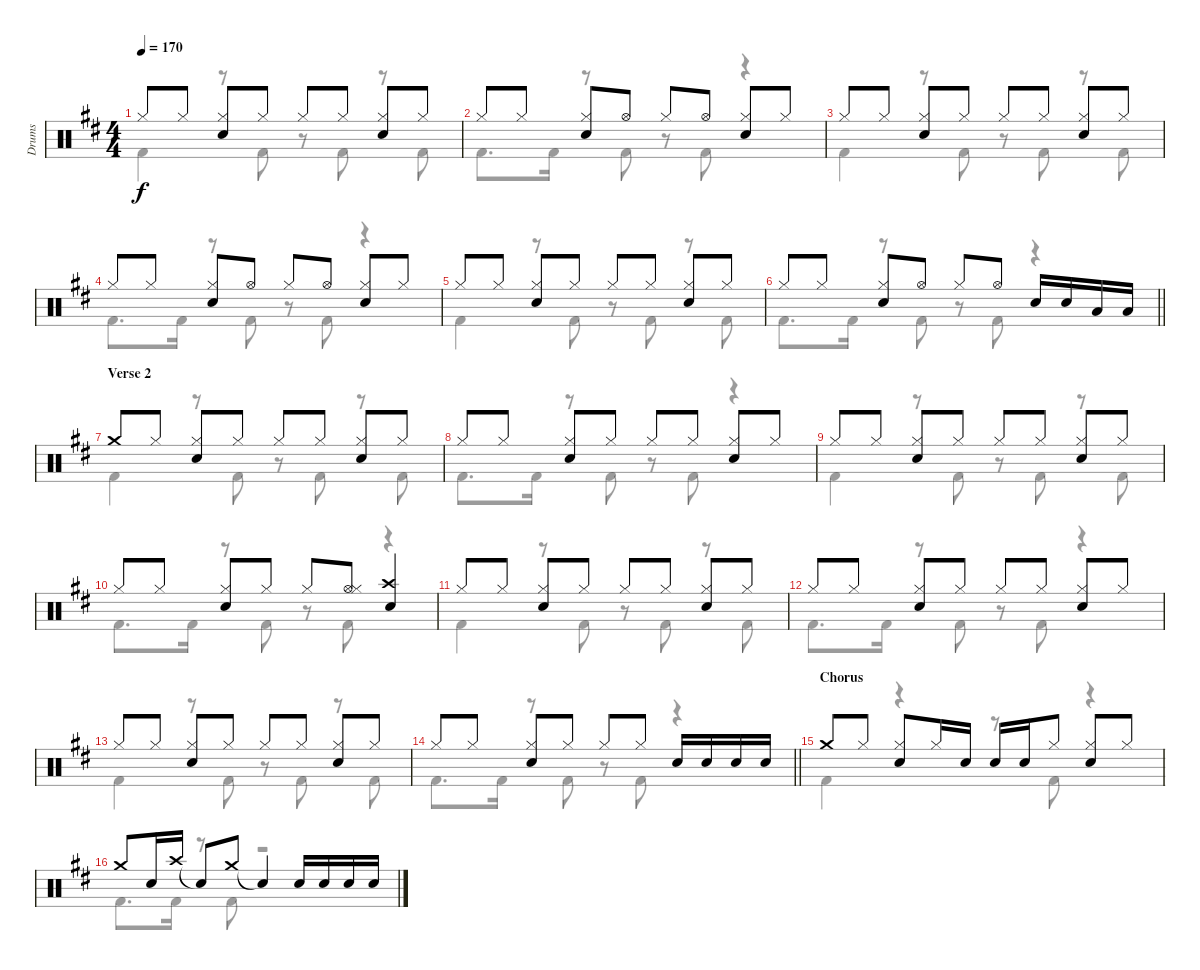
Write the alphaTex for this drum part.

\track ("Drums" "Drums") {instrument percussion}
\staff {score}
\articulation defaults
\voice
\ts (4 4)
\tempo 170
\clef neutral
\ks d "Hi-Hat (closed)".8{dy f} "Hi-Hat (closed)".8
("Hi-Hat (closed)" "Snare (hit) 2").8 "Hi-Hat (closed)".8 "Hi-Hat (closed)".8 "Hi-Hat (closed)".8 ("Hi-Hat (closed)" "Snare (hit) 2").8 "Hi-Hat (closed)".8 |
"Hi-Hat (closed)".8 "Hi-Hat (closed)".8 ("Hi-Hat (closed)" "Snare (hit) 2").8 "Hi-Hat (open)".8 "Hi-Hat (closed)".8 "Hi-Hat (open)".8 ("Hi-Hat (closed)" "Snare (hit) 2").8 "Hi-Hat (closed)".8 |
"Hi-Hat (closed)".8 "Hi-Hat (closed)".8 ("Hi-Hat (closed)" "Snare (hit) 2").8 "Hi-Hat (closed)".8 "Hi-Hat (closed)".8 "Hi-Hat (closed)".8 ("Hi-Hat (closed)" "Snare (hit) 2").8 "Hi-Hat (closed)".8 |
"Hi-Hat (closed)".8 "Hi-Hat (closed)".8 ("Hi-Hat (closed)" "Snare (hit) 2").8 "Hi-Hat (open)".8 "Hi-Hat (closed)".8 "Hi-Hat (open)".8 ("Hi-Hat (closed)" "Snare (hit) 2").8 "Hi-Hat (closed)".8 |
"Hi-Hat (closed)".8 "Hi-Hat (closed)".8 ("Hi-Hat (closed)" "Snare (hit) 2").8 "Hi-Hat (closed)".8 "Hi-Hat (closed)".8 "Hi-Hat (closed)".8 ("Hi-Hat (closed)" "Snare (hit) 2").8 "Hi-Hat (closed)".8 |
\barLineRight lightlight "Hi-Hat (closed)".8 "Hi-Hat (closed)".8
("Hi-Hat (closed)" "Snare (hit) 2").8 "Hi-Hat (open)".8 "Hi-Hat (closed)".8 "Hi-Hat (open)".8 "Snare (hit) 2".16 "Snare (hit) 2".16 "Low Tom (hit)".16 "Low Tom (hit)".16 |
\section ("" "Verse 2")
"Crash medium (hit)".8 "Hi-Hat (closed)".8 ("Hi-Hat (closed)" "Snare (hit) 2").8 "Hi-Hat (closed)".8 "Hi-Hat (closed)".8 "Hi-Hat (closed)".8 ("Hi-Hat (closed)" "Snare (hit) 2").8 "Hi-Hat (closed)".8 |
"Hi-Hat (closed)".8 "Hi-Hat (closed)".8 ("Hi-Hat (closed)" "Snare (hit) 2").8 "Hi-Hat (closed)".8 "Hi-Hat (closed)".8 "Hi-Hat (closed)".8 ("Hi-Hat (closed)" "Snare (hit) 2").8 "Hi-Hat (closed)".8 |
"Hi-Hat (closed)".8 "Hi-Hat (closed)".8 ("Hi-Hat (closed)" "Snare (hit) 2").8 "Hi-Hat (closed)".8 "Hi-Hat (closed)".8 "Hi-Hat (closed)".8 ("Hi-Hat (closed)" "Snare (hit) 2").8 "Hi-Hat (closed)".8 |
"Hi-Hat (closed)".8 "Hi-Hat (closed)".8 ("Hi-Hat (closed)" "Snare (hit) 2").8 "Hi-Hat (closed)".8 "Hi-Hat (closed)".8 ("Hi-Hat (open)" "Hi-Hat (closed)").8 ("Crash high (hit)" "Snare (hit) 2").4 |
"Hi-Hat (closed)".8 "Hi-Hat (closed)".8 ("Hi-Hat (closed)" "Snare (hit) 2").8 "Hi-Hat (closed)".8 "Hi-Hat (closed)".8 "Hi-Hat (closed)".8 ("Hi-Hat (closed)" "Snare (hit) 2").8 "Hi-Hat (closed)".8 |
"Hi-Hat (closed)".8 "Hi-Hat (closed)".8 ("Hi-Hat (closed)" "Snare (hit) 2").8 "Hi-Hat (closed)".8 "Hi-Hat (closed)".8 "Hi-Hat (closed)".8 ("Hi-Hat (closed)" "Snare (hit) 2").8 "Hi-Hat (closed)".8 |
"Hi-Hat (closed)".8 "Hi-Hat (closed)".8 ("Hi-Hat (closed)" "Snare (hit) 2").8 "Hi-Hat (closed)".8 "Hi-Hat (closed)".8 "Hi-Hat (closed)".8 ("Hi-Hat (closed)" "Snare (hit) 2").8 "Hi-Hat (closed)".8 |
\barLineRight lightlight "Hi-Hat (closed)".8 "Hi-Hat (closed)".8
("Hi-Hat (closed)" "Snare (hit) 2").8 "Hi-Hat (closed)".8 "Hi-Hat (closed)".8 "Hi-Hat (closed)".8 "Snare (hit) 2".16 "Snare (hit) 2".16 "Snare (hit) 2".16 "Snare (hit) 2".16 |
\section ("" "Chorus")
"Crash medium (hit)".8 "Hi-Hat (closed)".8 ("Hi-Hat (closed)" "Snare (hit) 2").8 "Hi-Hat (closed)".16 "Snare (hit) 2".16 "Snare (hit) 2".16 "Snare (hit) 2".16 "Hi-Hat (closed)".8 ("Hi-Hat (closed)" "Snare (hit) 2").8 "Hi-Hat (closed)".8 |
"Crash medium (hit)".8 "Snare (hit) 2".16 "Crash high (hit)".16 "Snare (hit)"{t}.8 "Crash medium (hit)".8 "Snare (hit)"{t}.4 "Snare (hit) 2".16 "Snare (hit) 2".16 "Snare (hit) 2".16 "Snare (hit) 2".16
\voice
\clef neutral
\ottava regular
\simile none
\ks d "Kick (hit) 2".4{dy f}
r.8 "Kick (hit) 2".8 r.8 "Kick (hit) 2".8 r.8 "Kick (hit) 2".8 |
"Kick (hit) 2".8{d} "Kick (hit) 2".16 r.8 "Kick (hit) 2".8 r.8 "Kick (hit) 2".8 r.4 |
"Kick (hit) 2".4 r.8 "Kick (hit) 2".8 r.8 "Kick (hit) 2".8 r.8 "Kick (hit) 2".8 |
"Kick (hit) 2".8{d} "Kick (hit) 2".16 r.8 "Kick (hit) 2".8 r.8 "Kick (hit) 2".8 r.4 |
"Kick (hit) 2".4 r.8 "Kick (hit) 2".8 r.8 "Kick (hit) 2".8 r.8 "Kick (hit) 2".8 |
\barLineRight lightlight "Kick (hit) 2".8{d} "Kick (hit) 2".16
r.8 "Kick (hit) 2".8 r.8 "Kick (hit) 2".8 r.4 |
"Kick (hit) 2".4 r.8 "Kick (hit) 2".8 r.8 "Kick (hit) 2".8 r.8 "Kick (hit) 2".8 |
"Kick (hit) 2".8{d} "Kick (hit) 2".16 r.8 "Kick (hit) 2".8 r.8 "Kick (hit) 2".8 r.4 |
"Kick (hit) 2".4 r.8 "Kick (hit) 2".8 r.8 "Kick (hit) 2".8 r.8 "Kick (hit) 2".8 |
"Kick (hit) 2".8{d} "Kick (hit) 2".16 r.8 "Kick (hit) 2".8 r.8 "Kick (hit) 2".8 r.4 |
"Kick (hit) 2".4 r.8 "Kick (hit) 2".8 r.8 "Kick (hit) 2".8 r.8 "Kick (hit) 2".8 |
"Kick (hit) 2".8{d} "Kick (hit) 2".16 r.8 "Kick (hit) 2".8 r.8 "Kick (hit) 2".8 r.4 |
"Kick (hit) 2".4 r.8 "Kick (hit) 2".8 r.8 "Kick (hit) 2".8 r.8 "Kick (hit) 2".8 |
\barLineRight lightlight "Kick (hit) 2".8{d} "Kick (hit) 2".16
r.8 "Kick (hit) 2".8 r.8 "Kick (hit) 2".8 r.4 |
"Kick (hit) 2".4 r.4 r.8 "Kick (hit) 2".8 r.4 |
"Kick (hit) 2".8{d} "Kick (hit) 2".16 r.8 "Kick (hit) 2".8 r.2
